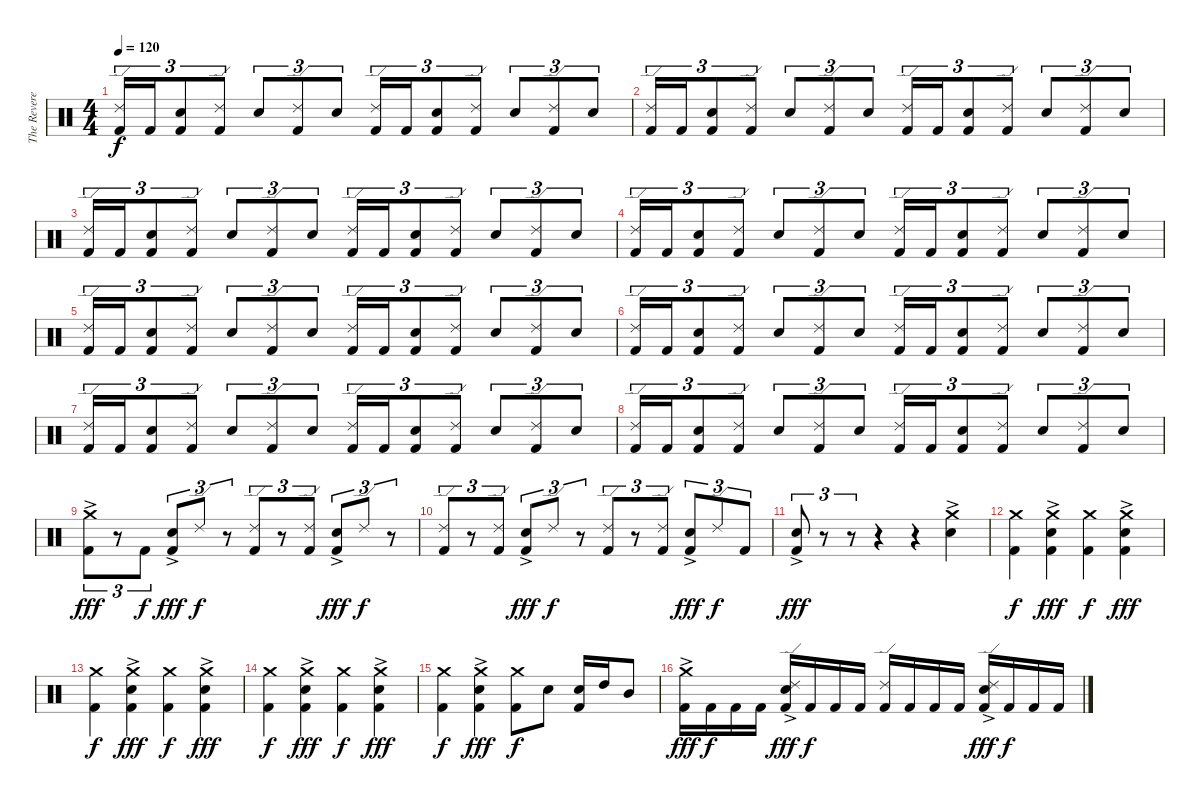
\track ("The Reverend" "The Revere") {instrument percussion}
\staff {score}
\articulation defaults
\ts (4 4)
\tempo 120
\clef neutral
\ks c
("Ride (edge) 2" "Kick (hit) 2").16{tu (3 2) dy f} "Kick (hit) 2".16{tu (3 2)} ("Electric Snare (hit)" "Kick (hit) 2").8{tu (3 2)} ("Ride (edge) 2" "Kick (hit) 2").8{tu (3 2)} "Electric Snare (hit)".8{tu (3 2)} ("Ride (edge) 2" "Kick (hit) 2").8{tu (3 2)} "Electric Snare (hit)".8{tu (3 2)} ("Ride (edge) 2" "Kick (hit) 2").16{tu (3 2)} "Kick (hit) 2".16{tu (3 2)} ("Electric Snare (hit)" "Kick (hit) 2").8{tu (3 2)} ("Ride (edge) 2" "Kick (hit) 2").8{tu (3 2)} "Electric Snare (hit)".8{tu (3 2)} ("Ride (edge) 2" "Kick (hit) 2").8{tu (3 2)} "Electric Snare (hit)".8{tu (3 2)} |
("Ride (edge) 2" "Kick (hit) 2").16{tu (3 2)} "Kick (hit) 2".16{tu (3 2)} ("Electric Snare (hit)" "Kick (hit) 2").8{tu (3 2)} ("Ride (edge) 2" "Kick (hit) 2").8{tu (3 2)} "Electric Snare (hit)".8{tu (3 2)} ("Ride (edge) 2" "Kick (hit) 2").8{tu (3 2)} "Electric Snare (hit)".8{tu (3 2)} ("Ride (edge) 2" "Kick (hit) 2").16{tu (3 2)} "Kick (hit) 2".16{tu (3 2)} ("Electric Snare (hit)" "Kick (hit) 2").8{tu (3 2)} ("Ride (edge) 2" "Kick (hit) 2").8{tu (3 2)} "Electric Snare (hit)".8{tu (3 2)} ("Ride (edge) 2" "Kick (hit) 2").8{tu (3 2)} "Electric Snare (hit)".8{tu (3 2)} |
("Ride (edge) 2" "Kick (hit) 2").16{tu (3 2)} "Kick (hit) 2".16{tu (3 2)} ("Electric Snare (hit)" "Kick (hit) 2").8{tu (3 2)} ("Ride (edge) 2" "Kick (hit) 2").8{tu (3 2)} "Electric Snare (hit)".8{tu (3 2)} ("Ride (edge) 2" "Kick (hit) 2").8{tu (3 2)} "Electric Snare (hit)".8{tu (3 2)} ("Ride (edge) 2" "Kick (hit) 2").16{tu (3 2)} "Kick (hit) 2".16{tu (3 2)} ("Electric Snare (hit)" "Kick (hit) 2").8{tu (3 2)} ("Ride (edge) 2" "Kick (hit) 2").8{tu (3 2)} "Electric Snare (hit)".8{tu (3 2)} ("Ride (edge) 2" "Kick (hit) 2").8{tu (3 2)} "Electric Snare (hit)".8{tu (3 2)} |
("Ride (edge) 2" "Kick (hit) 2").16{tu (3 2)} "Kick (hit) 2".16{tu (3 2)} ("Electric Snare (hit)" "Kick (hit) 2").8{tu (3 2)} ("Ride (edge) 2" "Kick (hit) 2").8{tu (3 2)} "Electric Snare (hit)".8{tu (3 2)} ("Ride (edge) 2" "Kick (hit) 2").8{tu (3 2)} "Electric Snare (hit)".8{tu (3 2)} ("Ride (edge) 2" "Kick (hit) 2").16{tu (3 2)} "Kick (hit) 2".16{tu (3 2)} ("Electric Snare (hit)" "Kick (hit) 2").8{tu (3 2)} ("Ride (edge) 2" "Kick (hit) 2").8{tu (3 2)} "Electric Snare (hit)".8{tu (3 2)} ("Ride (edge) 2" "Kick (hit) 2").8{tu (3 2)} "Electric Snare (hit)".8{tu (3 2)} |
("Ride (edge) 2" "Kick (hit) 2").16{tu (3 2)} "Kick (hit) 2".16{tu (3 2)} ("Electric Snare (hit)" "Kick (hit) 2").8{tu (3 2)} ("Ride (edge) 2" "Kick (hit) 2").8{tu (3 2)} "Electric Snare (hit)".8{tu (3 2)} ("Ride (edge) 2" "Kick (hit) 2").8{tu (3 2)} "Electric Snare (hit)".8{tu (3 2)} ("Ride (edge) 2" "Kick (hit) 2").16{tu (3 2)} "Kick (hit) 2".16{tu (3 2)} ("Electric Snare (hit)" "Kick (hit) 2").8{tu (3 2)} ("Ride (edge) 2" "Kick (hit) 2").8{tu (3 2)} "Electric Snare (hit)".8{tu (3 2)} ("Ride (edge) 2" "Kick (hit) 2").8{tu (3 2)} "Electric Snare (hit)".8{tu (3 2)} |
("Ride (edge) 2" "Kick (hit) 2").16{tu (3 2)} "Kick (hit) 2".16{tu (3 2)} ("Electric Snare (hit)" "Kick (hit) 2").8{tu (3 2)} ("Ride (edge) 2" "Kick (hit) 2").8{tu (3 2)} "Electric Snare (hit)".8{tu (3 2)} ("Ride (edge) 2" "Kick (hit) 2").8{tu (3 2)} "Electric Snare (hit)".8{tu (3 2)} ("Ride (edge) 2" "Kick (hit) 2").16{tu (3 2)} "Kick (hit) 2".16{tu (3 2)} ("Electric Snare (hit)" "Kick (hit) 2").8{tu (3 2)} ("Ride (edge) 2" "Kick (hit) 2").8{tu (3 2)} "Electric Snare (hit)".8{tu (3 2)} ("Ride (edge) 2" "Kick (hit) 2").8{tu (3 2)} "Electric Snare (hit)".8{tu (3 2)} |
("Ride (edge) 2" "Kick (hit) 2").16{tu (3 2)} "Kick (hit) 2".16{tu (3 2)} ("Electric Snare (hit)" "Kick (hit) 2").8{tu (3 2)} ("Ride (edge) 2" "Kick (hit) 2").8{tu (3 2)} "Electric Snare (hit)".8{tu (3 2)} ("Ride (edge) 2" "Kick (hit) 2").8{tu (3 2)} "Electric Snare (hit)".8{tu (3 2)} ("Ride (edge) 2" "Kick (hit) 2").16{tu (3 2)} "Kick (hit) 2".16{tu (3 2)} ("Electric Snare (hit)" "Kick (hit) 2").8{tu (3 2)} ("Ride (edge) 2" "Kick (hit) 2").8{tu (3 2)} "Electric Snare (hit)".8{tu (3 2)} ("Ride (edge) 2" "Kick (hit) 2").8{tu (3 2)} "Electric Snare (hit)".8{tu (3 2)} |
("Ride (edge) 2" "Kick (hit) 2").16{tu (3 2)} "Kick (hit) 2".16{tu (3 2)} ("Electric Snare (hit)" "Kick (hit) 2").8{tu (3 2)} ("Ride (edge) 2" "Kick (hit) 2").8{tu (3 2)} "Electric Snare (hit)".8{tu (3 2)} ("Ride (edge) 2" "Kick (hit) 2").8{tu (3 2)} "Electric Snare (hit)".8{tu (3 2)} ("Ride (edge) 2" "Kick (hit) 2").16{tu (3 2)} "Kick (hit) 2".16{tu (3 2)} ("Electric Snare (hit)" "Kick (hit) 2").8{tu (3 2)} ("Ride (edge) 2" "Kick (hit) 2").8{tu (3 2)} "Electric Snare (hit)".8{tu (3 2)} ("Ride (edge) 2" "Kick (hit) 2").8{tu (3 2)} "Electric Snare (hit)".8{tu (3 2)} |
("Crash medium (hit)"{ac} "Kick (hit) 2").8{tu (3 2) dy fff} r.8{tu (3 2)} "Kick (hit) 2".8{tu (3 2) dy f} ("Electric Snare (hit)"{ac} "Kick (hit) 2").8{tu (3 2) dy fff} "Ride (edge) 2".8{tu (3 2) dy f} r.8{tu (3 2)} ("Ride (edge) 2" "Kick (hit) 2").8{tu (3 2)} r.8{tu (3 2)} ("Ride (edge) 2" "Kick (hit) 2").8{tu (3 2)} ("Electric Snare (hit)"{ac} "Kick (hit) 2").8{tu (3 2) dy fff} "Ride (edge) 2".8{tu (3 2) dy f} r.8{tu (3 2)} |
("Ride (edge) 2" "Kick (hit) 2").8{tu (3 2)} r.8{tu (3 2)} ("Ride (edge) 2" "Kick (hit) 2").8{tu (3 2)} ("Electric Snare (hit)"{ac} "Kick (hit) 2").8{tu (3 2) dy fff} "Ride (edge) 2".8{tu (3 2) dy f} r.8{tu (3 2)} ("Ride (edge) 2" "Kick (hit) 2").8{tu (3 2)} r.8{tu (3 2)} ("Ride (edge) 2" "Kick (hit) 2").8{tu (3 2)} ("Electric Snare (hit)"{ac} "Kick (hit) 2").8{tu (3 2) dy fff} "Ride (edge) 2".8{tu (3 2) dy f} "Kick (hit) 2".8{tu (3 2)} |
("Electric Snare (hit)"{ac} "Kick (hit) 2").8{tu (3 2) dy fff} r.8{tu (3 2)} r.8{tu (3 2)} r.4 r.4 ("Crash medium (hit)"{ac} "Electric Snare (hit)"{ac}).4 |
("Crash medium (hit)" "Kick (hit) 2").4{dy f} ("Crash medium (hit)" "Electric Snare (hit)"{ac} "Kick (hit) 2").4{dy fff} ("Crash medium (hit)" "Kick (hit) 2").4{dy f} ("Crash medium (hit)" "Electric Snare (hit)"{ac} "Kick (hit) 2").4{dy fff} |
("Crash medium (hit)" "Kick (hit) 2").4{dy f} ("Crash medium (hit)" "Electric Snare (hit)"{ac} "Kick (hit) 2").4{dy fff} ("Crash medium (hit)" "Kick (hit) 2").4{dy f} ("Crash medium (hit)" "Electric Snare (hit)"{ac} "Kick (hit) 2").4{dy fff} |
("Crash medium (hit)" "Kick (hit) 2").4{dy f} ("Crash medium (hit)" "Electric Snare (hit)"{ac} "Kick (hit) 2").4{dy fff} ("Crash medium (hit)" "Kick (hit) 2").4{dy f} ("Crash medium (hit)" "Electric Snare (hit)"{ac} "Kick (hit) 2").4{dy fff} |
("Crash medium (hit)" "Kick (hit) 2").4{dy f} ("Crash medium (hit)" "Electric Snare (hit)"{ac} "Kick (hit) 2").4{dy fff} ("Crash medium (hit)" "Kick (hit) 2").8{dy f} "Electric Snare (hit)".8 ("Electric Snare (hit)" "Kick (hit) 2").16 "High Tom (hit)".16 "Mid Tom (hit)".8 |
("Crash medium (hit)"{ac} "Kick (hit) 2").16{dy fff} "Kick (hit) 2".16{dy f} "Kick (hit) 2".16 "Kick (hit) 2".16 ("Ride (edge) 2" "Electric Snare (hit)"{ac} "Kick (hit) 2").16{dy fff} "Kick (hit) 2".16{dy f} "Kick (hit) 2".16 "Kick (hit) 2".16 ("Ride (edge) 2" "Kick (hit) 2").16 "Kick (hit) 2".16 "Kick (hit) 2".16 "Kick (hit) 2".16 ("Ride (edge) 2" "Electric Snare (hit)"{ac} "Kick (hit) 2").16{dy fff} "Kick (hit) 2".16{dy f} "Kick (hit) 2".16 "Kick (hit) 2".16
